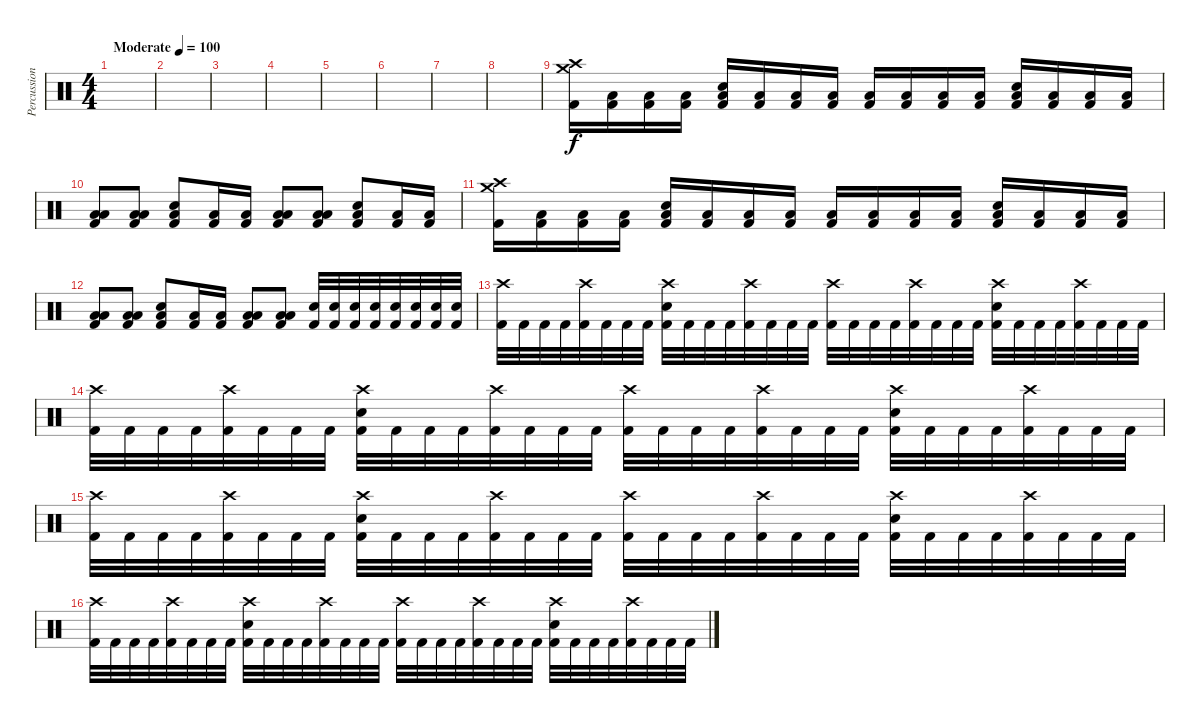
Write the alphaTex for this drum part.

\track ("Percussion" "Percussion") {instrument percussion}
\staff {score}
\articulation defaults
\ts (4 4)
\tempo (100 "Moderate")
\clef neutral
\ks c
|
|
|
|
|
|
|
|
("Crash medium (hit)" "Crash high (hit)" "Kick (hit) 2").16 ("Low Floor Tom (hit)" "Kick (hit) 2").16 ("Low Floor Tom (hit)" "Kick (hit) 2").16 ("Low Floor Tom (hit)" "Kick (hit) 2").16 ("Electric Snare (hit)" "Low Floor Tom (hit)" "Kick (hit) 2").16 ("Low Floor Tom (hit)" "Kick (hit) 2").16 ("Low Floor Tom (hit)" "Kick (hit) 2").16 ("Low Floor Tom (hit)" "Kick (hit) 2").16 ("Low Floor Tom (hit)" "Kick (hit) 2").16 ("Low Floor Tom (hit)" "Kick (hit) 2").16 ("Low Floor Tom (hit)" "Kick (hit) 2").16 ("Low Floor Tom (hit)" "Kick (hit) 2").16 ("Electric Snare (hit)" "Low Floor Tom (hit)" "Kick (hit) 2").16 ("Low Floor Tom (hit)" "Kick (hit) 2").16 ("Low Floor Tom (hit)" "Kick (hit) 2").16 ("Low Floor Tom (hit)" "Kick (hit) 2").16 |
("Low Floor Tom (hit)" "Low Floor Tom (hit)" "Kick (hit) 2").8 ("Low Floor Tom (hit)" "Low Floor Tom (hit)" "Kick (hit) 2").8 ("Electric Snare (hit)" "Low Floor Tom (hit)" "Kick (hit) 2").8 ("Low Floor Tom (hit)" "Kick (hit) 2").16 ("Low Floor Tom (hit)" "Kick (hit) 2").16 ("Low Floor Tom (hit)" "Low Floor Tom (hit)" "Kick (hit) 2").8 ("Low Floor Tom (hit)" "Low Floor Tom (hit)" "Kick (hit) 2").8 ("Electric Snare (hit)" "Low Floor Tom (hit)" "Kick (hit) 2").8 ("Low Floor Tom (hit)" "Kick (hit) 2").16 ("Low Floor Tom (hit)" "Kick (hit) 2").16 |
("Crash medium (hit)" "Crash high (hit)" "Kick (hit) 2").16 ("Low Floor Tom (hit)" "Kick (hit) 2").16 ("Low Floor Tom (hit)" "Kick (hit) 2").16 ("Low Floor Tom (hit)" "Kick (hit) 2").16 ("Electric Snare (hit)" "Low Floor Tom (hit)" "Kick (hit) 2").16 ("Low Floor Tom (hit)" "Kick (hit) 2").16 ("Low Floor Tom (hit)" "Kick (hit) 2").16 ("Low Floor Tom (hit)" "Kick (hit) 2").16 ("Low Floor Tom (hit)" "Kick (hit) 2").16 ("Low Floor Tom (hit)" "Kick (hit) 2").16 ("Low Floor Tom (hit)" "Kick (hit) 2").16 ("Low Floor Tom (hit)" "Kick (hit) 2").16 ("Electric Snare (hit)" "Low Floor Tom (hit)" "Kick (hit) 2").16 ("Low Floor Tom (hit)" "Kick (hit) 2").16 ("Low Floor Tom (hit)" "Kick (hit) 2").16 ("Low Floor Tom (hit)" "Kick (hit) 2").16 |
("Low Floor Tom (hit)" "Low Floor Tom (hit)" "Kick (hit) 2").8 ("Low Floor Tom (hit)" "Low Floor Tom (hit)" "Kick (hit) 2").8 ("Electric Snare (hit)" "Low Floor Tom (hit)" "Kick (hit) 2").8 ("Low Floor Tom (hit)" "Kick (hit) 2").16 ("Low Floor Tom (hit)" "Kick (hit) 2").16 ("Low Floor Tom (hit)" "Low Floor Tom (hit)" "Kick (hit) 2").8 ("Low Floor Tom (hit)" "Low Floor Tom (hit)" "Kick (hit) 2").8 ("Electric Snare (hit)" "Kick (hit) 2").32 ("Electric Snare (hit)" "Kick (hit) 2").32 ("Electric Snare (hit)" "Kick (hit) 2").32 ("Electric Snare (hit)" "Kick (hit) 2").32 ("Electric Snare (hit)" "Kick (hit) 2").32 ("Electric Snare (hit)" "Kick (hit) 2").32 ("Electric Snare (hit)" "Kick (hit) 2").32 ("Electric Snare (hit)" "Kick (hit) 2").32 |
("Crash high (hit)" "Kick (hit) 2").32 "Kick (hit) 2".32 "Kick (hit) 2".32 "Kick (hit) 2".32 ("Crash high (hit)" "Kick (hit) 2").32 "Kick (hit) 2".32 "Kick (hit) 2".32 "Kick (hit) 2".32 ("Electric Snare (hit)" "Crash high (hit)" "Kick (hit) 2").32 "Kick (hit) 2".32 "Kick (hit) 2".32 "Kick (hit) 2".32 ("Crash high (hit)" "Kick (hit) 2").32 "Kick (hit) 2".32 "Kick (hit) 2".32 "Kick (hit) 2".32 ("Crash high (hit)" "Kick (hit) 2").32 "Kick (hit) 2".32 "Kick (hit) 2".32 "Kick (hit) 2".32 ("Crash high (hit)" "Kick (hit) 2").32 "Kick (hit) 2".32 "Kick (hit) 2".32 "Kick (hit) 2".32 ("Electric Snare (hit)" "Crash high (hit)" "Kick (hit) 2").32 "Kick (hit) 2".32 "Kick (hit) 2".32 "Kick (hit) 2".32 ("Crash high (hit)" "Kick (hit) 2").32 "Kick (hit) 2".32 "Kick (hit) 2".32 "Kick (hit) 2".32 |
("Crash high (hit)" "Kick (hit) 2").32 "Kick (hit) 2".32 "Kick (hit) 2".32 "Kick (hit) 2".32 ("Crash high (hit)" "Kick (hit) 2").32 "Kick (hit) 2".32 "Kick (hit) 2".32 "Kick (hit) 2".32 ("Electric Snare (hit)" "Crash high (hit)" "Kick (hit) 2").32 "Kick (hit) 2".32 "Kick (hit) 2".32 "Kick (hit) 2".32 ("Crash high (hit)" "Kick (hit) 2").32 "Kick (hit) 2".32 "Kick (hit) 2".32 "Kick (hit) 2".32 ("Crash high (hit)" "Kick (hit) 2").32 "Kick (hit) 2".32 "Kick (hit) 2".32 "Kick (hit) 2".32 ("Crash high (hit)" "Kick (hit) 2").32 "Kick (hit) 2".32 "Kick (hit) 2".32 "Kick (hit) 2".32 ("Electric Snare (hit)" "Crash high (hit)" "Kick (hit) 2").32 "Kick (hit) 2".32 "Kick (hit) 2".32 "Kick (hit) 2".32 ("Crash high (hit)" "Kick (hit) 2").32 "Kick (hit) 2".32 "Kick (hit) 2".32 "Kick (hit) 2".32 |
("Crash high (hit)" "Kick (hit) 2").32 "Kick (hit) 2".32 "Kick (hit) 2".32 "Kick (hit) 2".32 ("Crash high (hit)" "Kick (hit) 2").32 "Kick (hit) 2".32 "Kick (hit) 2".32 "Kick (hit) 2".32 ("Electric Snare (hit)" "Crash high (hit)" "Kick (hit) 2").32 "Kick (hit) 2".32 "Kick (hit) 2".32 "Kick (hit) 2".32 ("Crash high (hit)" "Kick (hit) 2").32 "Kick (hit) 2".32 "Kick (hit) 2".32 "Kick (hit) 2".32 ("Crash high (hit)" "Kick (hit) 2").32 "Kick (hit) 2".32 "Kick (hit) 2".32 "Kick (hit) 2".32 ("Crash high (hit)" "Kick (hit) 2").32 "Kick (hit) 2".32 "Kick (hit) 2".32 "Kick (hit) 2".32 ("Electric Snare (hit)" "Crash high (hit)" "Kick (hit) 2").32 "Kick (hit) 2".32 "Kick (hit) 2".32 "Kick (hit) 2".32 ("Crash high (hit)" "Kick (hit) 2").32 "Kick (hit) 2".32 "Kick (hit) 2".32 "Kick (hit) 2".32 |
("Crash high (hit)" "Kick (hit) 2").32 "Kick (hit) 2".32 "Kick (hit) 2".32 "Kick (hit) 2".32 ("Crash high (hit)" "Kick (hit) 2").32 "Kick (hit) 2".32 "Kick (hit) 2".32 "Kick (hit) 2".32 ("Electric Snare (hit)" "Crash high (hit)" "Kick (hit) 2").32 "Kick (hit) 2".32 "Kick (hit) 2".32 "Kick (hit) 2".32 ("Crash high (hit)" "Kick (hit) 2").32 "Kick (hit) 2".32 "Kick (hit) 2".32 "Kick (hit) 2".32 ("Crash high (hit)" "Kick (hit) 2").32 "Kick (hit) 2".32 "Kick (hit) 2".32 "Kick (hit) 2".32 ("Crash high (hit)" "Kick (hit) 2").32 "Kick (hit) 2".32 "Kick (hit) 2".32 "Kick (hit) 2".32 ("Electric Snare (hit)" "Crash high (hit)" "Kick (hit) 2").32 "Kick (hit) 2".32 "Kick (hit) 2".32 "Kick (hit) 2".32 ("Crash high (hit)" "Kick (hit) 2").32 "Kick (hit) 2".32 "Kick (hit) 2".32 "Kick (hit) 2".32
